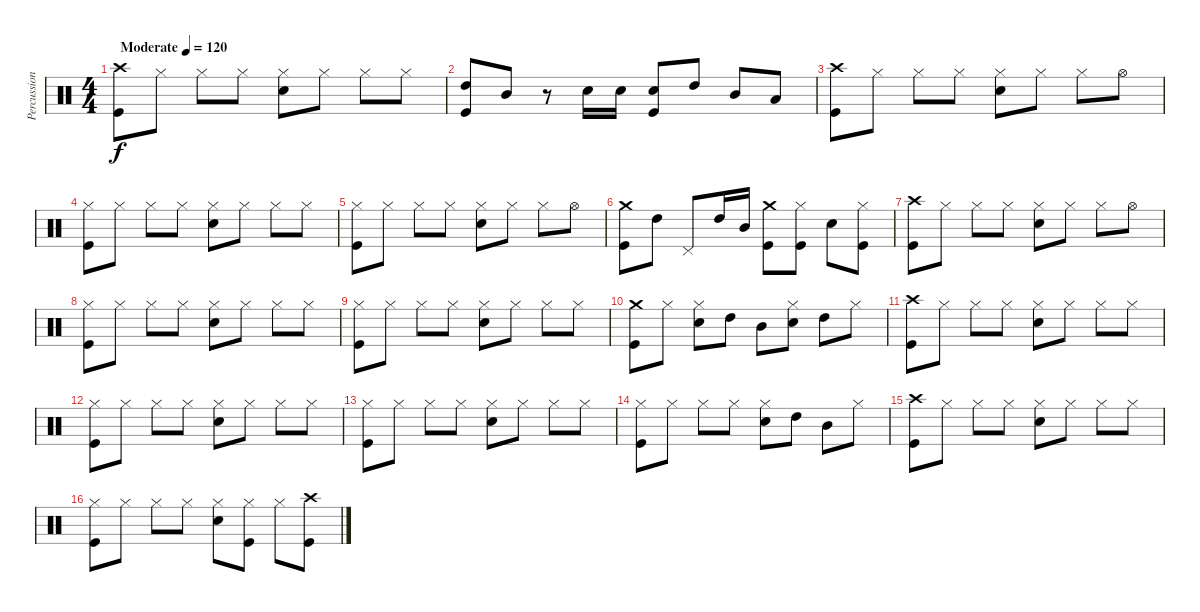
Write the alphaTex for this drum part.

\track ("Percussion" "Percussion") {instrument percussion}
\staff {score}
\articulation defaults
\ts (4 4)
\tempo (120 "Moderate")
\clef neutral
\ks c
("Crash high (hit)" "Kick (hit)").8{dy f} "Hi-Hat (closed)".8 "Hi-Hat (closed)".8 "Hi-Hat (closed)".8 ("Hi-Hat (closed)" "Snare (hit) 2").8 "Hi-Hat (closed)".8 "Hi-Hat (closed)".8 "Hi-Hat (closed)".8 |
("High Tom (hit)" "Kick (hit)").8 "Mid Tom (hit)".8 r.8 "Snare (hit) 2".16 "Snare (hit) 2".16 ("Snare (hit) 2" "Kick (hit)").8 "High Tom (hit)".8 "Mid Tom (hit)".8 "Low Floor Tom (hit)".8 |
("Crash high (hit)" "Kick (hit)").8 "Hi-Hat (closed)".8 "Hi-Hat (closed)".8 "Hi-Hat (closed)".8 ("Hi-Hat (closed)" "Snare (hit) 2").8 "Hi-Hat (closed)".8 "Hi-Hat (closed)".8 "Hi-Hat (open)".8 |
("Hi-Hat (closed)" "Kick (hit)").8 "Hi-Hat (closed)".8 "Hi-Hat (closed)".8 "Hi-Hat (closed)".8 ("Hi-Hat (closed)" "Snare (hit) 2").8 "Hi-Hat (closed)".8 "Hi-Hat (closed)".8 "Hi-Hat (closed)".8 |
("Hi-Hat (closed)" "Kick (hit)").8 "Hi-Hat (closed)".8 "Hi-Hat (closed)".8 "Hi-Hat (closed)".8 ("Hi-Hat (closed)" "Snare (hit) 2").8 "Hi-Hat (closed)".8 "Hi-Hat (closed)".8 "Hi-Hat (open)".8 |
("Crash medium (hit)" "Kick (hit)").8 "High Tom (hit)".8 "Pedal Hi-Hat (hit)".8 "High Tom (hit)".16 "Mid Tom (hit)".16 ("Crash medium (hit)" "Kick (hit)").8 ("Hi-Hat (closed)" "Kick (hit)").8 "Snare (hit) 2".8 ("Hi-Hat (closed)" "Kick (hit)").8 |
("Crash high (hit)" "Kick (hit)").8 "Hi-Hat (closed)".8 "Hi-Hat (closed)".8 "Hi-Hat (closed)".8 ("Hi-Hat (closed)" "Snare (hit) 2").8 "Hi-Hat (closed)".8 "Hi-Hat (closed)".8 "Hi-Hat (open)".8 |
("Hi-Hat (closed)" "Kick (hit)").8 "Hi-Hat (closed)".8 "Hi-Hat (closed)".8 "Hi-Hat (closed)".8 ("Hi-Hat (closed)" "Snare (hit) 2").8 "Hi-Hat (closed)".8 "Hi-Hat (closed)".8 "Hi-Hat (closed)".8 |
("Hi-Hat (closed)" "Kick (hit)").8 "Hi-Hat (closed)".8 "Hi-Hat (closed)".8 "Hi-Hat (closed)".8 ("Hi-Hat (closed)" "Snare (hit) 2").8 "Hi-Hat (closed)".8 "Hi-Hat (closed)".8 "Hi-Hat (closed)".8 |
("Crash medium (hit)" "Kick (hit)").8 "Hi-Hat (closed)".8 ("Hi-Hat (closed)" "Snare (hit) 2").8 "High Tom (hit)".8 "Mid Tom (hit)".8 ("Hi-Hat (closed)" "Snare (hit) 2").8 "High Tom (hit)".8 "Hi-Hat (closed)".8 |
("Crash high (hit)" "Kick (hit)").8 "Hi-Hat (closed)".8 "Hi-Hat (closed)".8 "Hi-Hat (closed)".8 ("Hi-Hat (closed)" "Snare (hit) 2").8 "Hi-Hat (closed)".8 "Hi-Hat (closed)".8 "Hi-Hat (closed)".8 |
("Hi-Hat (closed)" "Kick (hit)").8 "Hi-Hat (closed)".8 "Hi-Hat (closed)".8 "Hi-Hat (closed)".8 ("Hi-Hat (closed)" "Snare (hit) 2").8 "Hi-Hat (closed)".8 "Hi-Hat (closed)".8 "Hi-Hat (closed)".8 |
("Hi-Hat (closed)" "Kick (hit)").8 "Hi-Hat (closed)".8 "Hi-Hat (closed)".8 "Hi-Hat (closed)".8 ("Hi-Hat (closed)" "Snare (hit) 2").8 "Hi-Hat (closed)".8 "Hi-Hat (closed)".8 "Hi-Hat (closed)".8 |
("Hi-Hat (closed)" "Kick (hit)").8 "Hi-Hat (closed)".8 "Hi-Hat (closed)".8 "Hi-Hat (closed)".8 ("Hi-Hat (closed)" "Snare (hit) 2").8 "High Tom (hit)".8 "Mid Tom (hit)".8 "Hi-Hat (closed)".8 |
("Crash high (hit)" "Kick (hit)").8 "Hi-Hat (closed)".8 "Hi-Hat (closed)".8 "Hi-Hat (closed)".8 ("Hi-Hat (closed)" "Snare (hit) 2").8 "Hi-Hat (closed)".8 "Hi-Hat (closed)".8 "Hi-Hat (closed)".8 |
("Hi-Hat (closed)" "Kick (hit)").8 "Hi-Hat (closed)".8 "Hi-Hat (closed)".8 "Hi-Hat (closed)".8 ("Hi-Hat (closed)" "Snare (hit) 2").8 ("Hi-Hat (closed)" "Kick (hit)").8 "Hi-Hat (closed)".8 ("Crash high (hit)" "Kick (hit)").8
